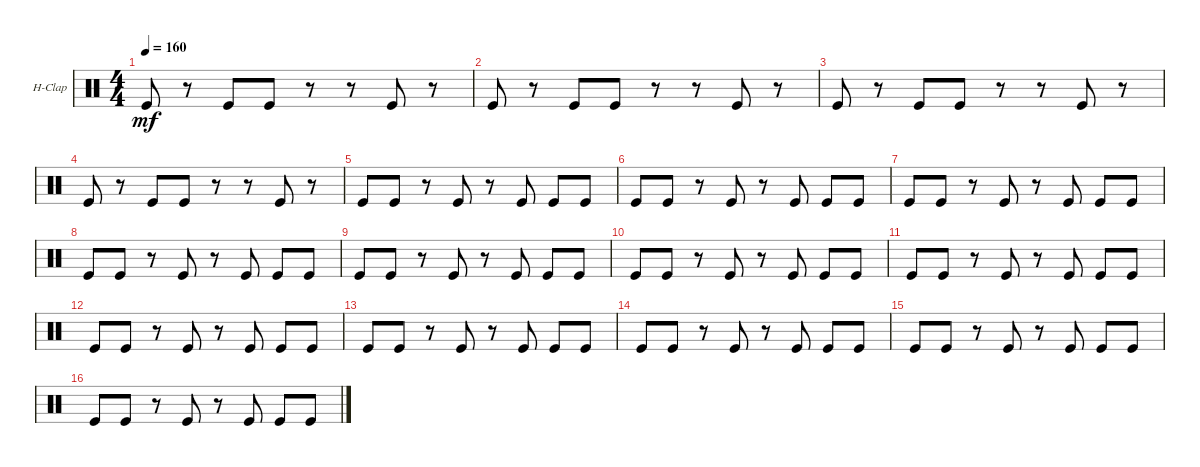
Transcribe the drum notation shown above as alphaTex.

\defaultSystemsLayout 4
\bracketExtendMode groupsimilarinstruments
\firstSystemTrackNameOrientation horizontal
\otherSystemsTrackNameOrientation horizontal
\track ("Hand Clap" "H-Clap") {instrument percussion}
\staff {score}
\articulation defaults
\ts (4 4)
\tempo 160
\clef neutral
\scale
0.474178
\ks c "Kick (hit)".8{dy mf}
r.8 "Kick (hit)".8 "Kick (hit)".8 r.8 r.8 "Kick (hit)".8 r.8 |
\scale
0.262911 "Kick (hit)".8 r.8 "Kick (hit)".8 "Kick (hit)".8 r.8 r.8 "Kick (hit)".8 r.8 |
\scale
0.262911 "Kick (hit)".8 r.8 "Kick (hit)".8 "Kick (hit)".8 r.8 r.8 "Kick (hit)".8 r.8 |
\scale
0.333333 "Kick (hit)".8 r.8 "Kick (hit)".8 "Kick (hit)".8 r.8 r.8 "Kick (hit)".8 r.8 |
\scale
0.333333 "Kick (hit)".8 "Kick (hit)".8 r.8 "Kick (hit)".8 r.8 "Kick (hit)".8 "Kick (hit)".8 "Kick (hit)".8 |
\scale
0.333333 "Kick (hit)".8 "Kick (hit)".8 r.8 "Kick (hit)".8 r.8 "Kick (hit)".8 "Kick (hit)".8 "Kick (hit)".8 |
\scale
0.333333 "Kick (hit)".8 "Kick (hit)".8 r.8 "Kick (hit)".8 r.8 "Kick (hit)".8 "Kick (hit)".8 "Kick (hit)".8 |
\scale
0.333333 "Kick (hit)".8 "Kick (hit)".8 r.8 "Kick (hit)".8 r.8 "Kick (hit)".8 "Kick (hit)".8 "Kick (hit)".8 |
\scale
0.333333 "Kick (hit)".8 "Kick (hit)".8 r.8 "Kick (hit)".8 r.8 "Kick (hit)".8 "Kick (hit)".8 "Kick (hit)".8 |
\scale
0.333333 "Kick (hit)".8 "Kick (hit)".8 r.8 "Kick (hit)".8 r.8 "Kick (hit)".8 "Kick (hit)".8 "Kick (hit)".8 |
\scale
0.333333 "Kick (hit)".8 "Kick (hit)".8 r.8 "Kick (hit)".8 r.8 "Kick (hit)".8 "Kick (hit)".8 "Kick (hit)".8 |
\scale
0.333333 "Kick (hit)".8 "Kick (hit)".8 r.8 "Kick (hit)".8 r.8 "Kick (hit)".8 "Kick (hit)".8 "Kick (hit)".8 |
\scale
0.333333 "Kick (hit)".8 "Kick (hit)".8 r.8 "Kick (hit)".8 r.8 "Kick (hit)".8 "Kick (hit)".8 "Kick (hit)".8 |
\scale
0.333333 "Kick (hit)".8 "Kick (hit)".8 r.8 "Kick (hit)".8 r.8 "Kick (hit)".8 "Kick (hit)".8 "Kick (hit)".8 |
\scale
0.333333 "Kick (hit)".8 "Kick (hit)".8 r.8 "Kick (hit)".8 r.8 "Kick (hit)".8 "Kick (hit)".8 "Kick (hit)".8 |
\scale
0.333333 "Kick (hit)".8 "Kick (hit)".8 r.8 "Kick (hit)".8 r.8 "Kick (hit)".8 "Kick (hit)".8 "Kick (hit)".8
